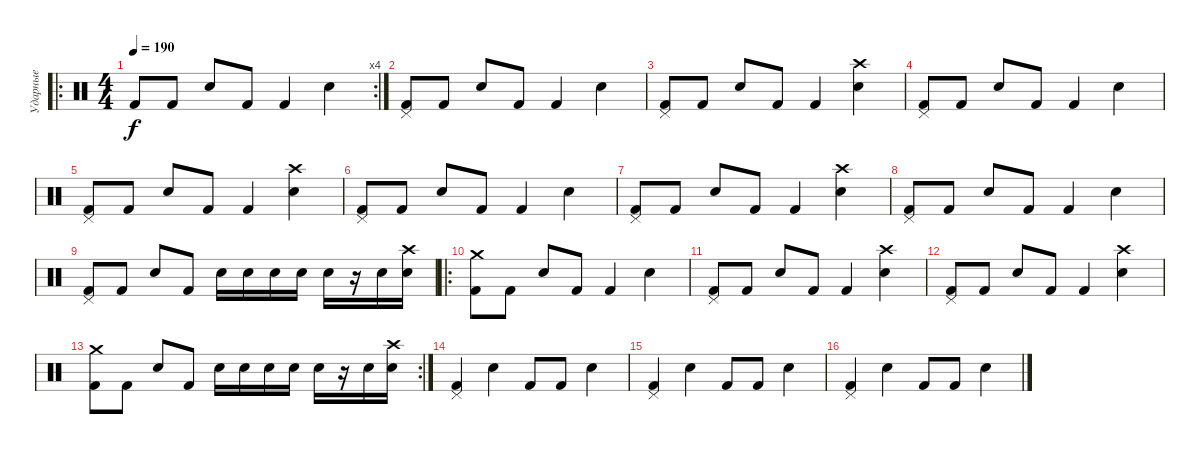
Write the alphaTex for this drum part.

\track ("Ударные" "Ударные") {instrument percussion}
\staff {score}
\articulation defaults
\ro
\rc 4
\ts (4 4)
\tempo 190
\clef neutral
\ks c "Kick (hit) 2".8{dy f} "Kick (hit) 2".8 "Electric Snare (hit)".8 "Kick (hit) 2".8 "Kick (hit) 2".4 "Electric Snare (hit)".4
|
("Pedal Hi-Hat (hit)" "Kick (hit) 2").8 "Kick (hit) 2".8 "Electric Snare (hit)".8 "Kick (hit) 2".8 "Kick (hit) 2".4 "Electric Snare (hit)".4 |
("Pedal Hi-Hat (hit)" "Kick (hit) 2").8 "Kick (hit) 2".8 "Electric Snare (hit)".8 "Kick (hit) 2".8 "Kick (hit) 2".4 ("Crash high (hit)" "Electric Snare (hit)").4 |
("Pedal Hi-Hat (hit)" "Kick (hit) 2").8 "Kick (hit) 2".8 "Electric Snare (hit)".8 "Kick (hit) 2".8 "Kick (hit) 2".4 "Electric Snare (hit)".4 |
("Pedal Hi-Hat (hit)" "Kick (hit) 2").8 "Kick (hit) 2".8 "Electric Snare (hit)".8 "Kick (hit) 2".8 "Kick (hit) 2".4 ("Crash high (hit)" "Electric Snare (hit)").4 |
("Pedal Hi-Hat (hit)" "Kick (hit) 2").8 "Kick (hit) 2".8 "Electric Snare (hit)".8 "Kick (hit) 2".8 "Kick (hit) 2".4 "Electric Snare (hit)".4 |
("Pedal Hi-Hat (hit)" "Kick (hit) 2").8 "Kick (hit) 2".8 "Electric Snare (hit)".8 "Kick (hit) 2".8 "Kick (hit) 2".4 ("Crash high (hit)" "Electric Snare (hit)").4 |
("Pedal Hi-Hat (hit)" "Kick (hit) 2").8 "Kick (hit) 2".8 "Electric Snare (hit)".8 "Kick (hit) 2".8 "Kick (hit) 2".4 "Electric Snare (hit)".4 |
("Pedal Hi-Hat (hit)" "Kick (hit) 2").8 "Kick (hit) 2".8 "Electric Snare (hit)".8 "Kick (hit) 2".8 "Electric Snare (hit)".16 "Electric Snare (hit)".16 "Electric Snare (hit)".16 "Electric Snare (hit)".16 "Electric Snare (hit)".16 r.16 "Electric Snare (hit)".16 ("Electric Snare (hit)" "Crash high (hit)").16 |
\ro
("Crash medium (hit)" "Kick (hit) 2").8 "Kick (hit) 2".8 "Electric Snare (hit)".8 "Kick (hit) 2".8 "Kick (hit) 2".4 "Electric Snare (hit)".4 |
("Pedal Hi-Hat (hit)" "Kick (hit) 2").8 "Kick (hit) 2".8 "Electric Snare (hit)".8 "Kick (hit) 2".8 "Kick (hit) 2".4 ("Crash high (hit)" "Electric Snare (hit)").4 |
("Pedal Hi-Hat (hit)" "Kick (hit) 2").8 "Kick (hit) 2".8 "Electric Snare (hit)".8 "Kick (hit) 2".8 "Kick (hit) 2".4 ("Crash high (hit)" "Electric Snare (hit)").4 |
\rc 2
("Crash medium (hit)" "Kick (hit) 2").8 "Kick (hit) 2".8 "Electric Snare (hit)".8 "Kick (hit) 2".8 "Electric Snare (hit)".16 "Electric Snare (hit)".16 "Electric Snare (hit)".16 "Electric Snare (hit)".16 "Electric Snare (hit)".16 r.16 "Electric Snare (hit)".16 ("Electric Snare (hit)" "Crash high (hit)").16 |
("Pedal Hi-Hat (hit)" "Kick (hit) 2").4 "Electric Snare (hit)".4 "Kick (hit) 2".8 "Kick (hit) 2".8 "Electric Snare (hit)".4 |
("Pedal Hi-Hat (hit)" "Kick (hit) 2").4 "Electric Snare (hit)".4 "Kick (hit) 2".8 "Kick (hit) 2".8 "Electric Snare (hit)".4 |
("Pedal Hi-Hat (hit)" "Kick (hit) 2").4 "Electric Snare (hit)".4 "Kick (hit) 2".8 "Kick (hit) 2".8 "Electric Snare (hit)".4
